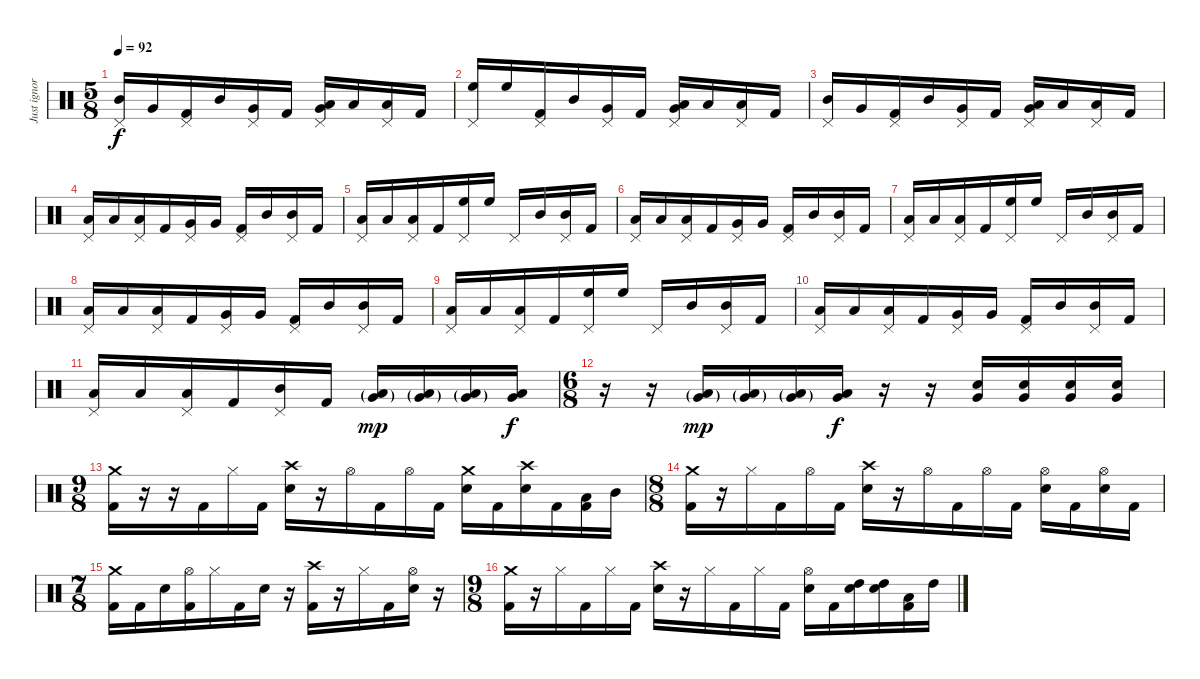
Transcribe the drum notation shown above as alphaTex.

\track ("Just ignore this track" "Just ignor") {instrument percussion}
\staff {score}
\articulation defaults
\ts (5 8)
\tempo 92
\clef neutral
\ks c
("Pedal Hi-Hat (hit)" "Mid Tom (hit)").16{dy f} "Very Low Tom (hit)".16 ("Pedal Hi-Hat (hit)" "Kick (hit) 2").16 "Mid Tom (hit)".16 ("Pedal Hi-Hat (hit)" "Very Low Tom (hit)").16 "Kick (hit) 2".16 ("Pedal Hi-Hat (hit)" "Low Floor Tom (hit)" "Very Low Tom (hit)").16 "Low Floor Tom (hit)".16 ("Pedal Hi-Hat (hit)" "Low Floor Tom (hit)").16 "Kick (hit) 2".16 |
("Pedal Hi-Hat (hit)" "High Floor Tom (hit)").16 "High Floor Tom (hit)".16 ("Pedal Hi-Hat (hit)" "Kick (hit) 2").16 "Mid Tom (hit)".16 ("Pedal Hi-Hat (hit)" "Very Low Tom (hit)").16 "Kick (hit) 2".16 ("Pedal Hi-Hat (hit)" "Low Floor Tom (hit)" "Very Low Tom (hit)").16 "Low Floor Tom (hit)".16 ("Pedal Hi-Hat (hit)" "Low Floor Tom (hit)").16 "Kick (hit) 2".16 |
("Pedal Hi-Hat (hit)" "Mid Tom (hit)").16 "Very Low Tom (hit)".16 ("Pedal Hi-Hat (hit)" "Kick (hit) 2").16 "Mid Tom (hit)".16 ("Pedal Hi-Hat (hit)" "Very Low Tom (hit)").16 "Kick (hit) 2".16 ("Pedal Hi-Hat (hit)" "Low Floor Tom (hit)" "Very Low Tom (hit)").16 "Low Floor Tom (hit)".16 ("Pedal Hi-Hat (hit)" "Low Floor Tom (hit)").16 "Kick (hit) 2".16 |
("Pedal Hi-Hat (hit)" "Low Floor Tom (hit)").16 "Low Floor Tom (hit)".16 ("Pedal Hi-Hat (hit)" "Low Floor Tom (hit)").16 "Kick (hit) 2".16 ("Pedal Hi-Hat (hit)" "Very Low Tom (hit)").16 "Very Low Tom (hit)".16 ("Pedal Hi-Hat (hit)" "Kick (hit) 2").16 "Mid Tom (hit)".16 ("Pedal Hi-Hat (hit)" "Mid Tom (hit)").16 "Kick (hit) 2".16 |
("Pedal Hi-Hat (hit)" "Low Floor Tom (hit)").16 "Low Floor Tom (hit)".16 ("Pedal Hi-Hat (hit)" "Low Floor Tom (hit)").16 "Kick (hit) 2".16 ("Pedal Hi-Hat (hit)" "High Floor Tom (hit)").16 "High Floor Tom (hit)".16 "Pedal Hi-Hat (hit)".16 "Mid Tom (hit)".16 ("Pedal Hi-Hat (hit)" "Mid Tom (hit)").16 "Kick (hit) 2".16 |
("Pedal Hi-Hat (hit)" "Low Floor Tom (hit)").16 "Low Floor Tom (hit)".16 ("Pedal Hi-Hat (hit)" "Low Floor Tom (hit)").16 "Kick (hit) 2".16 ("Pedal Hi-Hat (hit)" "Very Low Tom (hit)").16 "Very Low Tom (hit)".16 ("Pedal Hi-Hat (hit)" "Kick (hit) 2").16 "Mid Tom (hit)".16 ("Pedal Hi-Hat (hit)" "Mid Tom (hit)").16 "Kick (hit) 2".16 |
("Pedal Hi-Hat (hit)" "Low Floor Tom (hit)").16 "Low Floor Tom (hit)".16 ("Pedal Hi-Hat (hit)" "Low Floor Tom (hit)").16 "Kick (hit) 2".16 ("Pedal Hi-Hat (hit)" "High Floor Tom (hit)").16 "High Floor Tom (hit)".16 "Pedal Hi-Hat (hit)".16 "Mid Tom (hit)".16 ("Pedal Hi-Hat (hit)" "Mid Tom (hit)").16 "Kick (hit) 2".16 |
("Pedal Hi-Hat (hit)" "Low Floor Tom (hit)").16 "Low Floor Tom (hit)".16 ("Pedal Hi-Hat (hit)" "Low Floor Tom (hit)").16 "Kick (hit) 2".16 ("Pedal Hi-Hat (hit)" "Very Low Tom (hit)").16 "Very Low Tom (hit)".16 ("Pedal Hi-Hat (hit)" "Kick (hit) 2").16 "Mid Tom (hit)".16 ("Pedal Hi-Hat (hit)" "Mid Tom (hit)").16 "Kick (hit) 2".16 |
("Pedal Hi-Hat (hit)" "Low Floor Tom (hit)").16 "Low Floor Tom (hit)".16 ("Pedal Hi-Hat (hit)" "Low Floor Tom (hit)").16 "Kick (hit) 2".16 ("Pedal Hi-Hat (hit)" "High Floor Tom (hit)").16 "High Floor Tom (hit)".16 "Pedal Hi-Hat (hit)".16 "Mid Tom (hit)".16 ("Pedal Hi-Hat (hit)" "Mid Tom (hit)").16 "Kick (hit) 2".16 |
("Pedal Hi-Hat (hit)" "Low Floor Tom (hit)").16 "Low Floor Tom (hit)".16 ("Pedal Hi-Hat (hit)" "Low Floor Tom (hit)").16 "Kick (hit) 2".16 ("Pedal Hi-Hat (hit)" "Very Low Tom (hit)").16 "Very Low Tom (hit)".16 ("Pedal Hi-Hat (hit)" "Kick (hit) 2").16 "Mid Tom (hit)".16 ("Pedal Hi-Hat (hit)" "Mid Tom (hit)").16 "Kick (hit) 2".16 |
("Pedal Hi-Hat (hit)" "Low Floor Tom (hit)").16 "Low Floor Tom (hit)".16 ("Pedal Hi-Hat (hit)" "Low Floor Tom (hit)").16 "Kick (hit) 2".16 ("Pedal Hi-Hat (hit)" "Mid Tom (hit)").16 "Kick (hit) 2".16 ("Low Floor Tom (hit)"{g} "Very Low Tom (hit)"{g}).16{dy mp} ("Low Floor Tom (hit)"{g} "Very Low Tom (hit)"{g}).16 ("Low Floor Tom (hit)"{g} "Very Low Tom (hit)"{g}).16 ("Low Floor Tom (hit)" "Very Low Tom (hit)").16{dy f} |
\ts (6 8)
r.16 r.16 ("Low Floor Tom (hit)"{g} "Very Low Tom (hit)"{g}).16{dy mp} ("Low Floor Tom (hit)"{g} "Very Low Tom (hit)"{g}).16 ("Low Floor Tom (hit)"{g} "Very Low Tom (hit)"{g}).16 ("Low Floor Tom (hit)" "Very Low Tom (hit)").16{dy f} r.16 r.16 ("Very Low Tom (hit)" "Electric Snare (hit)").16 ("Very Low Tom (hit)" "Electric Snare (hit)").16 ("Very Low Tom (hit)" "Electric Snare (hit)").16 ("Very Low Tom (hit)" "Electric Snare (hit)").16 |
\ts (9 8)
("Crash medium (hit)" "Kick (hit) 2").16 r.16 r.16 "Kick (hit) 2".16 "Hi-Hat (closed)".16 "Kick (hit) 2".16 ("Crash high (hit)" "Electric Snare (hit)").16 r.16 "Hi-Hat (open)".16 "Kick (hit) 2".16 "Hi-Hat (open)".16 "Kick (hit) 2".16 ("Crash medium (hit)" "Electric Snare (hit)").16 "Kick (hit) 2".16 ("Crash high (hit)" "Electric Snare (hit)").16 "Kick (hit) 2".16 ("Low Tom (hit)" "Kick (hit) 2").16 "Mid Tom (hit)".16 |
\ts (8 8)
("Crash medium (hit)" "Kick (hit) 2").16 r.16 "Hi-Hat (closed)".16 "Kick (hit) 2".16 "Hi-Hat (open)".16 "Kick (hit) 2".16 ("Crash high (hit)" "Electric Snare (hit)").16 r.16 "Hi-Hat (open)".16 "Kick (hit) 2".16 "Hi-Hat (open)".16 "Kick (hit) 2".16 ("Hi-Hat (open)" "Electric Snare (hit)").16 "Kick (hit) 2".16 ("Hi-Hat (open)" "Electric Snare (hit)").16 "Kick (hit) 2".16 |
\ts (7 8)
("Crash medium (hit)" "Kick (hit) 2").16 "Kick (hit) 2".16 "Electric Snare (hit)".16 ("Hi-Hat (open)" "Kick (hit) 2").16 "Hi-Hat (closed)".16 "Kick (hit) 2".16 "Electric Snare (hit)".16 r.16 ("Crash high (hit)" "Kick (hit) 2").16 r.16 "Hi-Hat (closed)".16 "Kick (hit) 2".16 ("Hi-Hat (open)" "Electric Snare (hit)").16 r.16 |
\ts (9 8)
("Crash medium (hit)" "Kick (hit) 2").16 r.16 "Hi-Hat (closed)".16 "Kick (hit) 2".16 "Hi-Hat (closed)".16 "Kick (hit) 2".16 ("Crash high (hit)" "Electric Snare (hit)").16 r.16 "Hi-Hat (closed)".16 "Kick (hit) 2".16 "Hi-Hat (closed)".16 "Kick (hit) 2".16 ("Hi-Hat (open)" "Electric Snare (hit)").16 "Kick (hit) 2".16 ("High Tom (hit)" "Electric Snare (hit)").16 ("High Tom (hit)" "Electric Snare (hit)").16 ("Low Tom (hit)" "Kick (hit) 2").16 "High Tom (hit)".16
